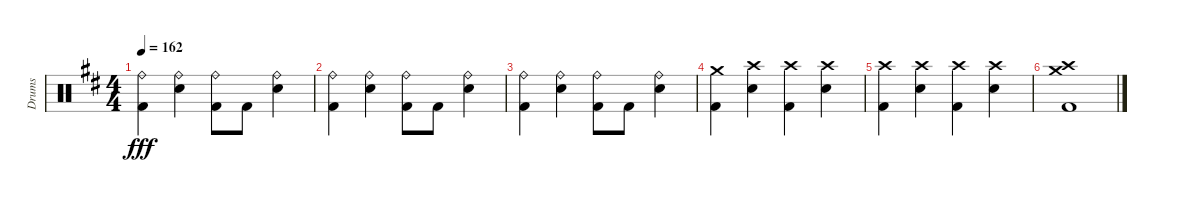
\track ("Drums" "Drums") {instrument percussion}
\staff {score}
\articulation defaults
\ts (4 4)
\tempo 162
\clef neutral
\ks d
("Ride (bell)" "Kick (hit) 2").4{dy fff} ("Ride (bell)" "Snare (hit) 2").4 ("Ride (bell)" "Kick (hit) 2").8 "Kick (hit) 2".8 ("Ride (bell)" "Snare (hit) 2").4 |
("Ride (bell)" "Kick (hit) 2").4 ("Ride (bell)" "Snare (hit) 2").4 ("Ride (bell)" "Kick (hit) 2").8 "Kick (hit) 2".8 ("Ride (bell)" "Snare (hit) 2").4 |
("Ride (bell)" "Kick (hit) 2").4 ("Ride (bell)" "Snare (hit) 2").4 ("Ride (bell)" "Kick (hit) 2").8 "Kick (hit) 2".8 ("Ride (bell)" "Snare (hit) 2").4 |
("Crash medium (hit)" "Kick (hit) 2").4 ("Crash high (hit)" "Snare (hit) 2").4 ("Crash high (hit)" "Kick (hit) 2").4 ("Crash high (hit)" "Snare (hit) 2").4 |
("Crash high (hit)" "Kick (hit) 2").4 ("Crash high (hit)" "Snare (hit) 2").4 ("Crash high (hit)" "Kick (hit) 2").4 ("Crash high (hit)" "Snare (hit) 2").4 |
("Crash high (hit)" "Crash medium (hit)" "Kick (hit) 2").1
